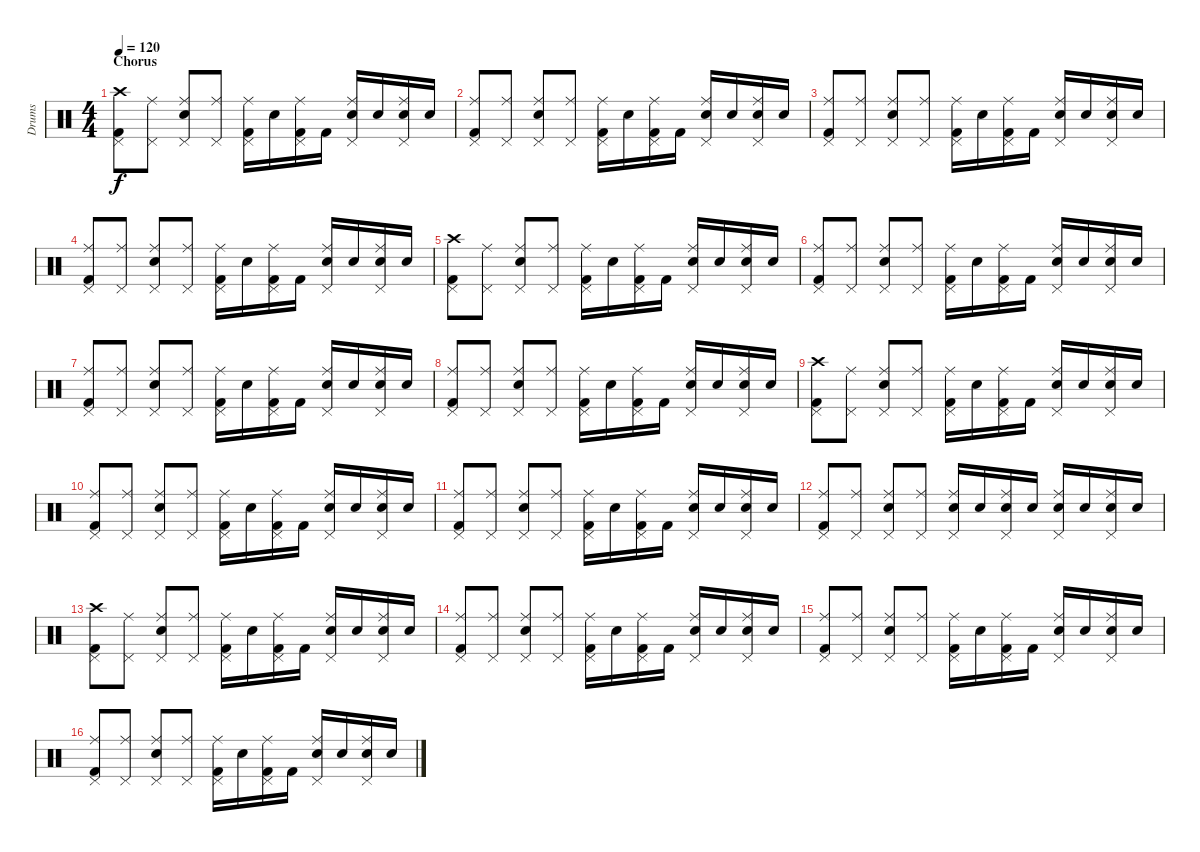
\track ("Drums" "Drums") {instrument percussion}
\staff {score}
\articulation defaults
\ts (4 4)
\section ("" "Chorus")
\tempo 120
\clef neutral
\ks c
("Crash high (hit)" "Kick (hit) 2" "Pedal Hi-Hat (hit)").8{dy f} ("Ride (middle)" "Pedal Hi-Hat (hit)").8 ("Ride (middle)" "Electric Snare (hit)" "Pedal Hi-Hat (hit)").8 ("Ride (middle)" "Pedal Hi-Hat (hit)").8 ("Ride (middle)" "Kick (hit) 2" "Pedal Hi-Hat (hit)").16 "Electric Snare (hit)".16 ("Ride (middle)" "Kick (hit) 2" "Pedal Hi-Hat (hit)").16 "Kick (hit) 2".16 ("Ride (middle)" "Electric Snare (hit)" "Pedal Hi-Hat (hit)").16 "Electric Snare (hit)".16 ("Ride (middle)" "Electric Snare (hit)" "Pedal Hi-Hat (hit)").16 "Electric Snare (hit)".16 |
("Ride (middle)" "Kick (hit) 2" "Pedal Hi-Hat (hit)").8 ("Ride (middle)" "Pedal Hi-Hat (hit)").8 ("Ride (middle)" "Electric Snare (hit)" "Pedal Hi-Hat (hit)").8 ("Ride (middle)" "Pedal Hi-Hat (hit)").8 ("Ride (middle)" "Kick (hit) 2" "Pedal Hi-Hat (hit)").16 "Electric Snare (hit)".16 ("Ride (middle)" "Kick (hit) 2" "Pedal Hi-Hat (hit)").16 "Kick (hit) 2".16 ("Ride (middle)" "Electric Snare (hit)" "Pedal Hi-Hat (hit)").16 "Electric Snare (hit)".16 ("Ride (middle)" "Electric Snare (hit)" "Pedal Hi-Hat (hit)").16 "Electric Snare (hit)".16 |
("Ride (middle)" "Kick (hit) 2" "Pedal Hi-Hat (hit)").8 ("Ride (middle)" "Pedal Hi-Hat (hit)").8 ("Ride (middle)" "Electric Snare (hit)" "Pedal Hi-Hat (hit)").8 ("Ride (middle)" "Pedal Hi-Hat (hit)").8 ("Ride (middle)" "Kick (hit) 2" "Pedal Hi-Hat (hit)").16 "Electric Snare (hit)".16 ("Ride (middle)" "Kick (hit) 2" "Pedal Hi-Hat (hit)").16 "Kick (hit) 2".16 ("Ride (middle)" "Electric Snare (hit)" "Pedal Hi-Hat (hit)").16 "Electric Snare (hit)".16 ("Ride (middle)" "Electric Snare (hit)" "Pedal Hi-Hat (hit)").16 "Electric Snare (hit)".16 |
("Ride (middle)" "Kick (hit) 2" "Pedal Hi-Hat (hit)").8 ("Ride (middle)" "Pedal Hi-Hat (hit)").8 ("Ride (middle)" "Electric Snare (hit)" "Pedal Hi-Hat (hit)").8 ("Ride (middle)" "Pedal Hi-Hat (hit)").8 ("Ride (middle)" "Kick (hit) 2" "Pedal Hi-Hat (hit)").16 "Electric Snare (hit)".16 ("Ride (middle)" "Kick (hit) 2" "Pedal Hi-Hat (hit)").16 "Kick (hit) 2".16 ("Ride (middle)" "Electric Snare (hit)" "Pedal Hi-Hat (hit)").16 "Electric Snare (hit)".16 ("Ride (middle)" "Electric Snare (hit)" "Pedal Hi-Hat (hit)").16 "Electric Snare (hit)".16 |
("Crash high (hit)" "Kick (hit) 2" "Pedal Hi-Hat (hit)").8 ("Ride (middle)" "Pedal Hi-Hat (hit)").8 ("Ride (middle)" "Electric Snare (hit)" "Pedal Hi-Hat (hit)").8 ("Ride (middle)" "Pedal Hi-Hat (hit)").8 ("Ride (middle)" "Kick (hit) 2" "Pedal Hi-Hat (hit)").16 "Electric Snare (hit)".16 ("Ride (middle)" "Kick (hit) 2" "Pedal Hi-Hat (hit)").16 "Kick (hit) 2".16 ("Ride (middle)" "Electric Snare (hit)" "Pedal Hi-Hat (hit)").16 "Electric Snare (hit)".16 ("Ride (middle)" "Electric Snare (hit)" "Pedal Hi-Hat (hit)").16 "Electric Snare (hit)".16 |
("Ride (middle)" "Kick (hit) 2" "Pedal Hi-Hat (hit)").8 ("Ride (middle)" "Pedal Hi-Hat (hit)").8 ("Ride (middle)" "Electric Snare (hit)" "Pedal Hi-Hat (hit)").8 ("Ride (middle)" "Pedal Hi-Hat (hit)").8 ("Ride (middle)" "Kick (hit) 2" "Pedal Hi-Hat (hit)").16 "Electric Snare (hit)".16 ("Ride (middle)" "Kick (hit) 2" "Pedal Hi-Hat (hit)").16 "Kick (hit) 2".16 ("Ride (middle)" "Electric Snare (hit)" "Pedal Hi-Hat (hit)").16 "Electric Snare (hit)".16 ("Ride (middle)" "Electric Snare (hit)" "Pedal Hi-Hat (hit)").16 "Electric Snare (hit)".16 |
("Ride (middle)" "Kick (hit) 2" "Pedal Hi-Hat (hit)").8 ("Ride (middle)" "Pedal Hi-Hat (hit)").8 ("Ride (middle)" "Electric Snare (hit)" "Pedal Hi-Hat (hit)").8 ("Ride (middle)" "Pedal Hi-Hat (hit)").8 ("Ride (middle)" "Kick (hit) 2" "Pedal Hi-Hat (hit)").16 "Electric Snare (hit)".16 ("Ride (middle)" "Kick (hit) 2" "Pedal Hi-Hat (hit)").16 "Kick (hit) 2".16 ("Ride (middle)" "Electric Snare (hit)" "Pedal Hi-Hat (hit)").16 "Electric Snare (hit)".16 ("Ride (middle)" "Electric Snare (hit)" "Pedal Hi-Hat (hit)").16 "Electric Snare (hit)".16 |
("Ride (middle)" "Kick (hit) 2" "Pedal Hi-Hat (hit)").8 ("Ride (middle)" "Pedal Hi-Hat (hit)").8 ("Ride (middle)" "Electric Snare (hit)" "Pedal Hi-Hat (hit)").8 ("Ride (middle)" "Pedal Hi-Hat (hit)").8 ("Ride (middle)" "Kick (hit) 2" "Pedal Hi-Hat (hit)").16 "Electric Snare (hit)".16 ("Ride (middle)" "Kick (hit) 2" "Pedal Hi-Hat (hit)").16 "Kick (hit) 2".16 ("Ride (middle)" "Electric Snare (hit)" "Pedal Hi-Hat (hit)").16 "Electric Snare (hit)".16 ("Ride (middle)" "Electric Snare (hit)" "Pedal Hi-Hat (hit)").16 "Electric Snare (hit)".16 |
("Crash high (hit)" "Kick (hit) 2" "Pedal Hi-Hat (hit)").8 ("Ride (middle)" "Pedal Hi-Hat (hit)").8 ("Ride (middle)" "Electric Snare (hit)" "Pedal Hi-Hat (hit)").8 ("Ride (middle)" "Pedal Hi-Hat (hit)").8 ("Ride (middle)" "Kick (hit) 2" "Pedal Hi-Hat (hit)").16 "Electric Snare (hit)".16 ("Ride (middle)" "Kick (hit) 2" "Pedal Hi-Hat (hit)").16 "Kick (hit) 2".16 ("Ride (middle)" "Electric Snare (hit)" "Pedal Hi-Hat (hit)").16 "Electric Snare (hit)".16 ("Ride (middle)" "Electric Snare (hit)" "Pedal Hi-Hat (hit)").16 "Electric Snare (hit)".16 |
("Ride (middle)" "Kick (hit) 2" "Pedal Hi-Hat (hit)").8 ("Ride (middle)" "Pedal Hi-Hat (hit)").8 ("Ride (middle)" "Electric Snare (hit)" "Pedal Hi-Hat (hit)").8 ("Ride (middle)" "Pedal Hi-Hat (hit)").8 ("Ride (middle)" "Kick (hit) 2" "Pedal Hi-Hat (hit)").16 "Electric Snare (hit)".16 ("Ride (middle)" "Kick (hit) 2" "Pedal Hi-Hat (hit)").16 "Kick (hit) 2".16 ("Ride (middle)" "Electric Snare (hit)" "Pedal Hi-Hat (hit)").16 "Electric Snare (hit)".16 ("Ride (middle)" "Electric Snare (hit)" "Pedal Hi-Hat (hit)").16 "Electric Snare (hit)".16 |
("Ride (middle)" "Kick (hit) 2" "Pedal Hi-Hat (hit)").8 ("Ride (middle)" "Pedal Hi-Hat (hit)").8 ("Ride (middle)" "Electric Snare (hit)" "Pedal Hi-Hat (hit)").8 ("Ride (middle)" "Pedal Hi-Hat (hit)").8 ("Ride (middle)" "Kick (hit) 2" "Pedal Hi-Hat (hit)").16 "Electric Snare (hit)".16 ("Ride (middle)" "Kick (hit) 2" "Pedal Hi-Hat (hit)").16 "Kick (hit) 2".16 ("Ride (middle)" "Electric Snare (hit)" "Pedal Hi-Hat (hit)").16 "Electric Snare (hit)".16 ("Ride (middle)" "Electric Snare (hit)" "Pedal Hi-Hat (hit)").16 "Electric Snare (hit)".16 |
("Ride (middle)" "Kick (hit) 2" "Pedal Hi-Hat (hit)").8 ("Ride (middle)" "Pedal Hi-Hat (hit)").8 ("Ride (middle)" "Electric Snare (hit)" "Pedal Hi-Hat (hit)").8 ("Ride (middle)" "Pedal Hi-Hat (hit)").8 ("Ride (middle)" "Electric Snare (hit)" "Pedal Hi-Hat (hit)").16 "Electric Snare (hit)".16 ("Ride (middle)" "Electric Snare (hit)" "Pedal Hi-Hat (hit)").16 "Electric Snare (hit)".16 ("Ride (middle)" "Electric Snare (hit)" "Pedal Hi-Hat (hit)").16 "Electric Snare (hit)".16 ("Ride (middle)" "Electric Snare (hit)" "Pedal Hi-Hat (hit)").16 "Electric Snare (hit)".16 |
("Crash high (hit)" "Kick (hit) 2" "Pedal Hi-Hat (hit)").8 ("Ride (middle)" "Pedal Hi-Hat (hit)").8 ("Ride (middle)" "Electric Snare (hit)" "Pedal Hi-Hat (hit)").8 ("Ride (middle)" "Pedal Hi-Hat (hit)").8 ("Ride (middle)" "Kick (hit) 2" "Pedal Hi-Hat (hit)").16 "Electric Snare (hit)".16 ("Ride (middle)" "Kick (hit) 2" "Pedal Hi-Hat (hit)").16 "Kick (hit) 2".16 ("Ride (middle)" "Electric Snare (hit)" "Pedal Hi-Hat (hit)").16 "Electric Snare (hit)".16 ("Ride (middle)" "Electric Snare (hit)" "Pedal Hi-Hat (hit)").16 "Electric Snare (hit)".16 |
("Ride (middle)" "Kick (hit) 2" "Pedal Hi-Hat (hit)").8 ("Ride (middle)" "Pedal Hi-Hat (hit)").8 ("Ride (middle)" "Electric Snare (hit)" "Pedal Hi-Hat (hit)").8 ("Ride (middle)" "Pedal Hi-Hat (hit)").8 ("Ride (middle)" "Kick (hit) 2" "Pedal Hi-Hat (hit)").16 "Electric Snare (hit)".16 ("Ride (middle)" "Kick (hit) 2" "Pedal Hi-Hat (hit)").16 "Kick (hit) 2".16 ("Ride (middle)" "Electric Snare (hit)" "Pedal Hi-Hat (hit)").16 "Electric Snare (hit)".16 ("Ride (middle)" "Electric Snare (hit)" "Pedal Hi-Hat (hit)").16 "Electric Snare (hit)".16 |
("Ride (middle)" "Kick (hit) 2" "Pedal Hi-Hat (hit)").8 ("Ride (middle)" "Pedal Hi-Hat (hit)").8 ("Ride (middle)" "Electric Snare (hit)" "Pedal Hi-Hat (hit)").8 ("Ride (middle)" "Pedal Hi-Hat (hit)").8 ("Ride (middle)" "Kick (hit) 2" "Pedal Hi-Hat (hit)").16 "Electric Snare (hit)".16 ("Ride (middle)" "Kick (hit) 2" "Pedal Hi-Hat (hit)").16 "Kick (hit) 2".16 ("Ride (middle)" "Electric Snare (hit)" "Pedal Hi-Hat (hit)").16 "Electric Snare (hit)".16 ("Ride (middle)" "Electric Snare (hit)" "Pedal Hi-Hat (hit)").16 "Electric Snare (hit)".16 |
("Ride (middle)" "Kick (hit) 2" "Pedal Hi-Hat (hit)").8 ("Ride (middle)" "Pedal Hi-Hat (hit)").8 ("Ride (middle)" "Electric Snare (hit)" "Pedal Hi-Hat (hit)").8 ("Ride (middle)" "Pedal Hi-Hat (hit)").8 ("Ride (middle)" "Kick (hit) 2" "Pedal Hi-Hat (hit)").16 "Electric Snare (hit)".16 ("Ride (middle)" "Kick (hit) 2" "Pedal Hi-Hat (hit)").16 "Kick (hit) 2".16 ("Ride (middle)" "Electric Snare (hit)" "Pedal Hi-Hat (hit)").16 "Electric Snare (hit)".16 ("Ride (middle)" "Electric Snare (hit)" "Pedal Hi-Hat (hit)").16 "Electric Snare (hit)".16
